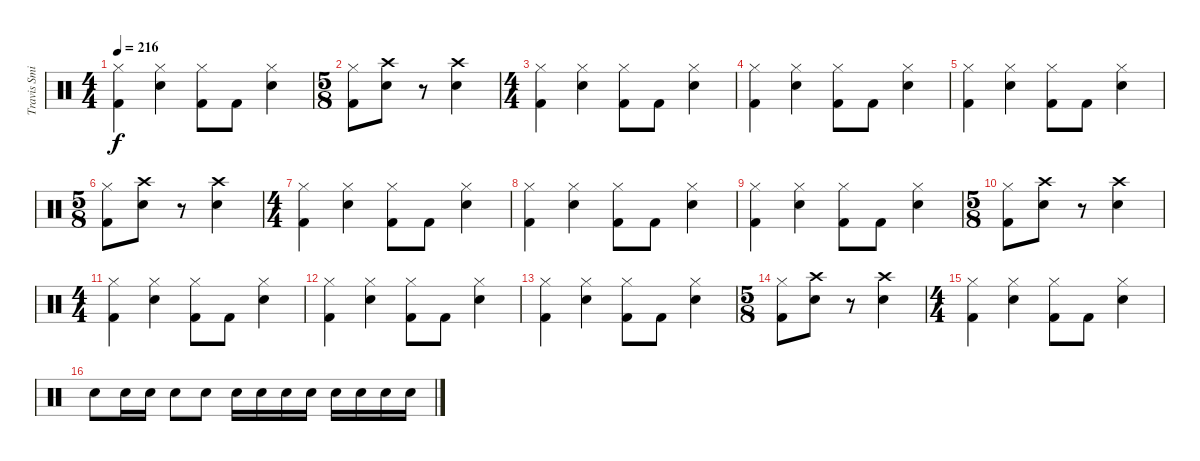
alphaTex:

\track ("Travis Smith (Drums)" "Travis Smi") {instrument percussion}
\staff {score}
\articulation defaults
\ts (4 4)
\tempo 216
\clef neutral
\ks c
("Hi-Hat (closed)" "Kick (hit) 2").4{dy f} ("Hi-Hat (closed)" "Electric Snare (hit)").4 ("Hi-Hat (closed)" "Kick (hit) 2").8 "Kick (hit) 2".8 ("Hi-Hat (closed)" "Electric Snare (hit)").4 |
\ts (5 8)
("Hi-Hat (closed)" "Kick (hit) 2").8 ("Crash high (hit)" "Electric Snare (hit)").8 r.8 ("Crash high (hit)" "Electric Snare (hit)").4 |
\ts (4 4)
("Hi-Hat (closed)" "Kick (hit) 2").4 ("Hi-Hat (closed)" "Electric Snare (hit)").4 ("Hi-Hat (closed)" "Kick (hit) 2").8 "Kick (hit) 2".8 ("Hi-Hat (closed)" "Electric Snare (hit)").4 |
("Hi-Hat (closed)" "Kick (hit) 2").4 ("Hi-Hat (closed)" "Electric Snare (hit)").4 ("Hi-Hat (closed)" "Kick (hit) 2").8 "Kick (hit) 2".8 ("Hi-Hat (closed)" "Electric Snare (hit)").4 |
("Hi-Hat (closed)" "Kick (hit) 2").4 ("Hi-Hat (closed)" "Electric Snare (hit)").4 ("Hi-Hat (closed)" "Kick (hit) 2").8 "Kick (hit) 2".8 ("Hi-Hat (closed)" "Electric Snare (hit)").4 |
\ts (5 8)
("Hi-Hat (closed)" "Kick (hit) 2").8 ("Crash high (hit)" "Electric Snare (hit)").8 r.8 ("Crash high (hit)" "Electric Snare (hit)").4 |
\ts (4 4)
("Hi-Hat (closed)" "Kick (hit) 2").4 ("Hi-Hat (closed)" "Electric Snare (hit)").4 ("Hi-Hat (closed)" "Kick (hit) 2").8 "Kick (hit) 2".8 ("Hi-Hat (closed)" "Electric Snare (hit)").4 |
("Hi-Hat (closed)" "Kick (hit) 2").4 ("Hi-Hat (closed)" "Electric Snare (hit)").4 ("Hi-Hat (closed)" "Kick (hit) 2").8 "Kick (hit) 2".8 ("Hi-Hat (closed)" "Electric Snare (hit)").4 |
("Hi-Hat (closed)" "Kick (hit) 2").4 ("Hi-Hat (closed)" "Electric Snare (hit)").4 ("Hi-Hat (closed)" "Kick (hit) 2").8 "Kick (hit) 2".8 ("Hi-Hat (closed)" "Electric Snare (hit)").4 |
\ts (5 8)
("Hi-Hat (closed)" "Kick (hit) 2").8 ("Crash high (hit)" "Electric Snare (hit)").8 r.8 ("Crash high (hit)" "Electric Snare (hit)").4 |
\ts (4 4)
("Hi-Hat (closed)" "Kick (hit) 2").4 ("Hi-Hat (closed)" "Electric Snare (hit)").4 ("Hi-Hat (closed)" "Kick (hit) 2").8 "Kick (hit) 2".8 ("Hi-Hat (closed)" "Electric Snare (hit)").4 |
("Hi-Hat (closed)" "Kick (hit) 2").4 ("Hi-Hat (closed)" "Electric Snare (hit)").4 ("Hi-Hat (closed)" "Kick (hit) 2").8 "Kick (hit) 2".8 ("Hi-Hat (closed)" "Electric Snare (hit)").4 |
("Hi-Hat (closed)" "Kick (hit) 2").4 ("Hi-Hat (closed)" "Electric Snare (hit)").4 ("Hi-Hat (closed)" "Kick (hit) 2").8 "Kick (hit) 2".8 ("Hi-Hat (closed)" "Electric Snare (hit)").4 |
\ts (5 8)
("Hi-Hat (closed)" "Kick (hit) 2").8 ("Crash high (hit)" "Electric Snare (hit)").8 r.8 ("Crash high (hit)" "Electric Snare (hit)").4 |
\ts (4 4)
("Hi-Hat (closed)" "Kick (hit) 2").4 ("Hi-Hat (closed)" "Electric Snare (hit)").4 ("Hi-Hat (closed)" "Kick (hit) 2").8 "Kick (hit) 2".8 ("Hi-Hat (closed)" "Electric Snare (hit)").4 |
"Electric Snare (hit)".8 "Electric Snare (hit)".16 "Electric Snare (hit)".16 "Electric Snare (hit)".8 "Electric Snare (hit)".8 "Electric Snare (hit)".16 "Electric Snare (hit)".16 "Electric Snare (hit)".16 "Electric Snare (hit)".16 "Electric Snare (hit)".16 "Electric Snare (hit)".16 "Electric Snare (hit)".16 "Electric Snare (hit)".16
